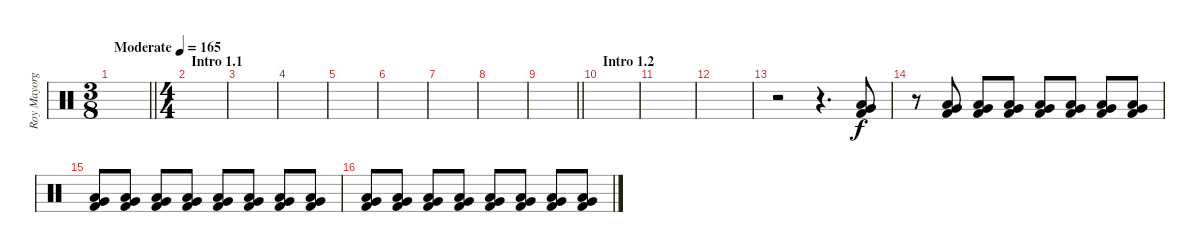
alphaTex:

\track ("Roy Mayorga" "Roy Mayorg") {instrument percussion}
\staff {score}
\articulation defaults
\ts (3 8)
\tempo (165 "Moderate")
\clef neutral
\barLineRight lightlight
\ks c
|
\ts (4 4)
\section ("" "Intro 1.1")
|
|
|
|
|
|
|
\barLineRight lightlight
|
\section ("" "Intro 1.2")
|
|
|
r.2 r.4{d} ("Very Low Tom (hit)" "Low Floor Tom (hit)" "Kick (hit) 2").8 |
r.8 ("Very Low Tom (hit)" "Low Floor Tom (hit)" "Kick (hit) 2").8 ("Very Low Tom (hit)" "Low Floor Tom (hit)" "Kick (hit) 2").8 ("Very Low Tom (hit)" "Low Floor Tom (hit)" "Kick (hit) 2").8 ("Very Low Tom (hit)" "Low Floor Tom (hit)" "Kick (hit) 2").8 ("Very Low Tom (hit)" "Low Floor Tom (hit)" "Kick (hit) 2").8 ("Very Low Tom (hit)" "Low Floor Tom (hit)" "Kick (hit) 2").8 ("Very Low Tom (hit)" "Low Floor Tom (hit)" "Kick (hit) 2").8 |
("Very Low Tom (hit)" "Low Floor Tom (hit)" "Kick (hit) 2").8 ("Very Low Tom (hit)" "Low Floor Tom (hit)" "Kick (hit) 2").8 ("Very Low Tom (hit)" "Low Floor Tom (hit)" "Kick (hit) 2").8 ("Very Low Tom (hit)" "Low Floor Tom (hit)" "Kick (hit) 2").8 ("Very Low Tom (hit)" "Low Floor Tom (hit)" "Kick (hit) 2").8 ("Very Low Tom (hit)" "Low Floor Tom (hit)" "Kick (hit) 2").8 ("Very Low Tom (hit)" "Low Floor Tom (hit)" "Kick (hit) 2").8 ("Very Low Tom (hit)" "Low Floor Tom (hit)" "Kick (hit) 2").8 |
("Very Low Tom (hit)" "Low Floor Tom (hit)" "Kick (hit) 2").8 ("Very Low Tom (hit)" "Low Floor Tom (hit)" "Kick (hit) 2").8 ("Very Low Tom (hit)" "Low Floor Tom (hit)" "Kick (hit) 2").8 ("Very Low Tom (hit)" "Low Floor Tom (hit)" "Kick (hit) 2").8 ("Very Low Tom (hit)" "Low Floor Tom (hit)" "Kick (hit) 2").8 ("Very Low Tom (hit)" "Low Floor Tom (hit)" "Kick (hit) 2").8 ("Very Low Tom (hit)" "Low Floor Tom (hit)" "Kick (hit) 2").8 ("Very Low Tom (hit)" "Low Floor Tom (hit)" "Kick (hit) 2").8
